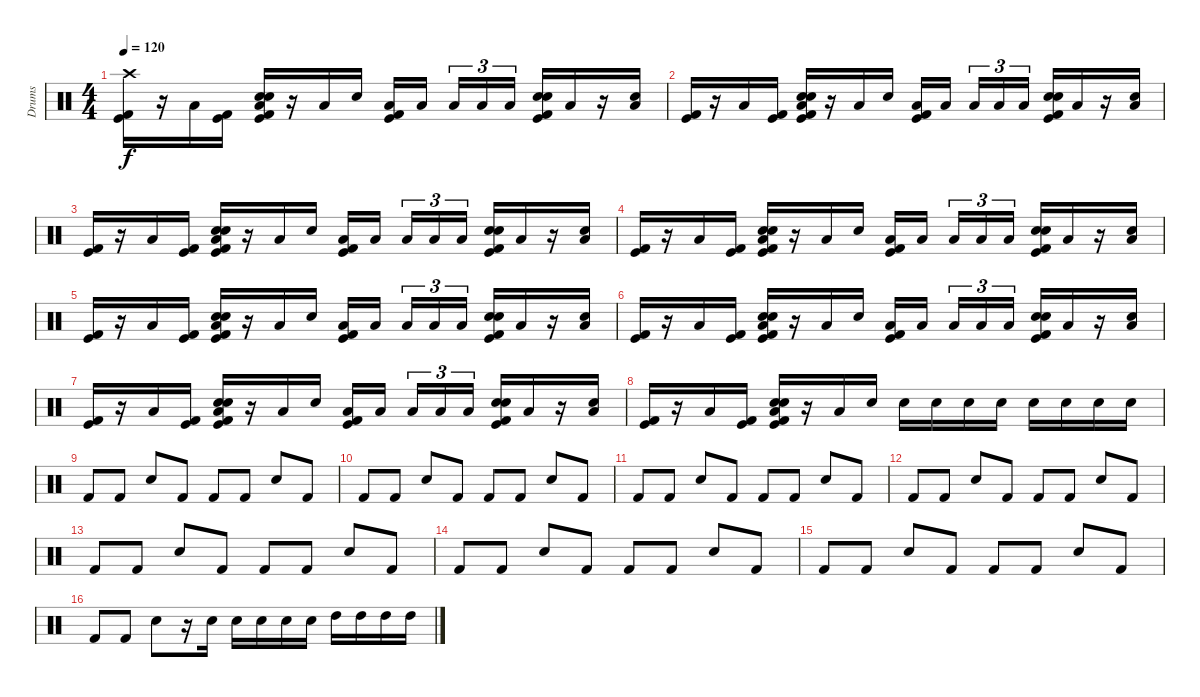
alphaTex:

\track ("Drums" "Drums") {instrument percussion}
\staff {score}
\articulation defaults
\ts (4 4)
\tempo 120
\clef neutral
\ks c
("Crash high (hit)" "Kick (hit)" "Kick (hit) 2").16{dy f} r.16 "Low Tom (hit)".16 ("Kick (hit)" "Kick (hit) 2").16 ("Snare (hit) 2" "Low Tom (hit)" "Electric Snare (hit)" "Kick (hit)" "Kick (hit) 2").16 r.16 "Low Tom (hit)".16 "Electric Snare (hit)".16 ("Low Tom (hit)" "Kick (hit)" "Kick (hit) 2").16 "Low Tom (hit)".16 "Low Tom (hit)".16{tu (3 2)} "Low Tom (hit)".16{tu (3 2)} "Low Tom (hit)".16{tu (3 2)} ("Snare (hit) 2" "Electric Snare (hit)" "Kick (hit)" "Kick (hit) 2").16 "Low Tom (hit)".16 r.16 ("Low Tom (hit)" "Electric Snare (hit)").16 |
("Kick (hit)" "Kick (hit) 2").16 r.16 "Low Tom (hit)".16 ("Kick (hit)" "Kick (hit) 2").16 ("Snare (hit) 2" "Low Tom (hit)" "Electric Snare (hit)" "Kick (hit)" "Kick (hit) 2").16 r.16 "Low Tom (hit)".16 "Electric Snare (hit)".16 ("Low Tom (hit)" "Kick (hit)" "Kick (hit) 2").16 "Low Tom (hit)".16 "Low Tom (hit)".16{tu (3 2)} "Low Tom (hit)".16{tu (3 2)} "Low Tom (hit)".16{tu (3 2)} ("Snare (hit) 2" "Electric Snare (hit)" "Kick (hit)" "Kick (hit) 2").16 "Low Tom (hit)".16 r.16 ("Low Tom (hit)" "Electric Snare (hit)").16 |
("Kick (hit)" "Kick (hit) 2").16 r.16 "Low Tom (hit)".16 ("Kick (hit)" "Kick (hit) 2").16 ("Snare (hit) 2" "Low Tom (hit)" "Electric Snare (hit)" "Kick (hit)" "Kick (hit) 2").16 r.16 "Low Tom (hit)".16 "Electric Snare (hit)".16 ("Low Tom (hit)" "Kick (hit)" "Kick (hit) 2").16 "Low Tom (hit)".16 "Low Tom (hit)".16{tu (3 2)} "Low Tom (hit)".16{tu (3 2)} "Low Tom (hit)".16{tu (3 2)} ("Snare (hit) 2" "Electric Snare (hit)" "Kick (hit)" "Kick (hit) 2").16 "Low Tom (hit)".16 r.16 ("Low Tom (hit)" "Electric Snare (hit)").16 |
("Kick (hit)" "Kick (hit) 2").16 r.16 "Low Tom (hit)".16 ("Kick (hit)" "Kick (hit) 2").16 ("Snare (hit) 2" "Low Tom (hit)" "Electric Snare (hit)" "Kick (hit)" "Kick (hit) 2").16 r.16 "Low Tom (hit)".16 "Electric Snare (hit)".16 ("Low Tom (hit)" "Kick (hit)" "Kick (hit) 2").16 "Low Tom (hit)".16 "Low Tom (hit)".16{tu (3 2)} "Low Tom (hit)".16{tu (3 2)} "Low Tom (hit)".16{tu (3 2)} ("Snare (hit) 2" "Electric Snare (hit)" "Kick (hit)" "Kick (hit) 2").16 "Low Tom (hit)".16 r.16 ("Low Tom (hit)" "Electric Snare (hit)").16 |
("Kick (hit)" "Kick (hit) 2").16 r.16 "Low Tom (hit)".16 ("Kick (hit)" "Kick (hit) 2").16 ("Snare (hit) 2" "Low Tom (hit)" "Electric Snare (hit)" "Kick (hit)" "Kick (hit) 2").16 r.16 "Low Tom (hit)".16 "Electric Snare (hit)".16 ("Low Tom (hit)" "Kick (hit)" "Kick (hit) 2").16 "Low Tom (hit)".16 "Low Tom (hit)".16{tu (3 2)} "Low Tom (hit)".16{tu (3 2)} "Low Tom (hit)".16{tu (3 2)} ("Snare (hit) 2" "Electric Snare (hit)" "Kick (hit)" "Kick (hit) 2").16 "Low Tom (hit)".16 r.16 ("Low Tom (hit)" "Electric Snare (hit)").16 |
("Kick (hit)" "Kick (hit) 2").16 r.16 "Low Tom (hit)".16 ("Kick (hit)" "Kick (hit) 2").16 ("Snare (hit) 2" "Low Tom (hit)" "Electric Snare (hit)" "Kick (hit)" "Kick (hit) 2").16 r.16 "Low Tom (hit)".16 "Electric Snare (hit)".16 ("Low Tom (hit)" "Kick (hit)" "Kick (hit) 2").16 "Low Tom (hit)".16 "Low Tom (hit)".16{tu (3 2)} "Low Tom (hit)".16{tu (3 2)} "Low Tom (hit)".16{tu (3 2)} ("Snare (hit) 2" "Electric Snare (hit)" "Kick (hit)" "Kick (hit) 2").16 "Low Tom (hit)".16 r.16 ("Low Tom (hit)" "Electric Snare (hit)").16 |
("Kick (hit)" "Kick (hit) 2").16 r.16 "Low Tom (hit)".16 ("Kick (hit)" "Kick (hit) 2").16 ("Snare (hit) 2" "Low Tom (hit)" "Electric Snare (hit)" "Kick (hit)" "Kick (hit) 2").16 r.16 "Low Tom (hit)".16 "Electric Snare (hit)".16 ("Low Tom (hit)" "Kick (hit)" "Kick (hit) 2").16 "Low Tom (hit)".16 "Low Tom (hit)".16{tu (3 2)} "Low Tom (hit)".16{tu (3 2)} "Low Tom (hit)".16{tu (3 2)} ("Snare (hit) 2" "Electric Snare (hit)" "Kick (hit)" "Kick (hit) 2").16 "Low Tom (hit)".16 r.16 ("Low Tom (hit)" "Electric Snare (hit)").16 |
("Kick (hit)" "Kick (hit) 2").16 r.16 "Low Tom (hit)".16 ("Kick (hit)" "Kick (hit) 2").16 ("Snare (hit) 2" "Low Tom (hit)" "Electric Snare (hit)" "Kick (hit)" "Kick (hit) 2").16 r.16 "Low Tom (hit)".16 "Snare (hit) 2".16 "Snare (hit) 2".16 "Snare (hit) 2".16 "Snare (hit) 2".16 "Snare (hit) 2".16 "Electric Snare (hit)".16 "Electric Snare (hit)".16 "Electric Snare (hit)".16 "Electric Snare (hit)".16 |
"Kick (hit) 2".8 "Kick (hit) 2".8 "Electric Snare (hit)".8 "Kick (hit) 2".8 "Kick (hit) 2".8 "Kick (hit) 2".8 "Electric Snare (hit)".8 "Kick (hit) 2".8 |
"Kick (hit) 2".8 "Kick (hit) 2".8 "Electric Snare (hit)".8 "Kick (hit) 2".8 "Kick (hit) 2".8 "Kick (hit) 2".8 "Electric Snare (hit)".8 "Kick (hit) 2".8 |
"Kick (hit) 2".8 "Kick (hit) 2".8 "Electric Snare (hit)".8 "Kick (hit) 2".8 "Kick (hit) 2".8 "Kick (hit) 2".8 "Electric Snare (hit)".8 "Kick (hit) 2".8 |
"Kick (hit) 2".8 "Kick (hit) 2".8 "Electric Snare (hit)".8 "Kick (hit) 2".8 "Kick (hit) 2".8 "Kick (hit) 2".8 "Electric Snare (hit)".8 "Kick (hit) 2".8 |
"Kick (hit) 2".8 "Kick (hit) 2".8 "Electric Snare (hit)".8 "Kick (hit) 2".8 "Kick (hit) 2".8 "Kick (hit) 2".8 "Electric Snare (hit)".8 "Kick (hit) 2".8 |
"Kick (hit) 2".8 "Kick (hit) 2".8 "Electric Snare (hit)".8 "Kick (hit) 2".8 "Kick (hit) 2".8 "Kick (hit) 2".8 "Electric Snare (hit)".8 "Kick (hit) 2".8 |
"Kick (hit) 2".8 "Kick (hit) 2".8 "Electric Snare (hit)".8 "Kick (hit) 2".8 "Kick (hit) 2".8 "Kick (hit) 2".8 "Electric Snare (hit)".8 "Kick (hit) 2".8 |
"Kick (hit) 2".8 "Kick (hit) 2".8 "Electric Snare (hit)".8 r.16 "Electric Snare (hit)".16 "Electric Snare (hit)".16 "Electric Snare (hit)".16 "Electric Snare (hit)".16 "Electric Snare (hit)".16 "High Tom (hit)".16 "High Tom (hit)".16 "High Tom (hit)".16 "High Tom (hit)".16
